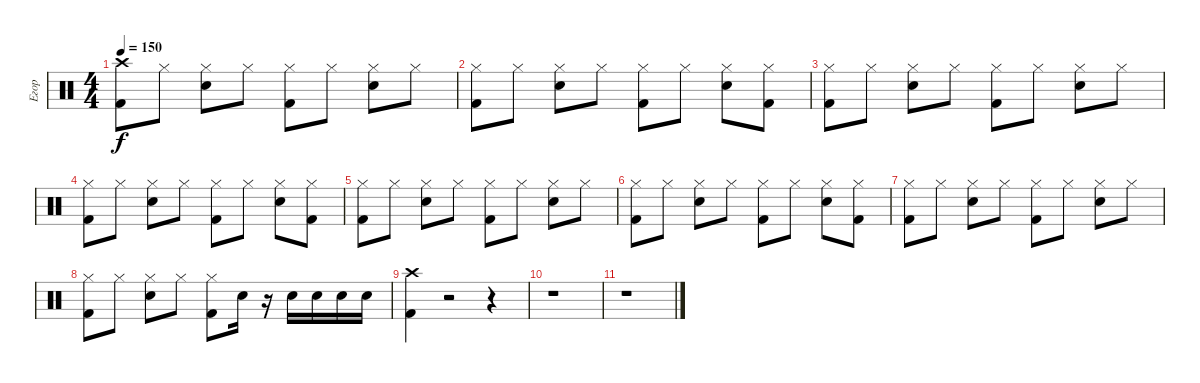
\track ("Егор" "Егор") {instrument percussion}
\staff {score}
\articulation defaults
\ts (4 4)
\tempo 150
\clef neutral
\ks c
("Crash high (hit)" "Kick (hit) 2").8{dy f} "Hi-Hat (closed)".8 ("Hi-Hat (closed)" "Snare (hit) 2").8 "Hi-Hat (closed)".8 ("Hi-Hat (closed)" "Kick (hit) 2").8 "Hi-Hat (closed)".8 ("Hi-Hat (closed)" "Snare (hit) 2").8 "Hi-Hat (closed)".8 |
("Hi-Hat (closed)" "Kick (hit) 2").8 "Hi-Hat (closed)".8 ("Hi-Hat (closed)" "Snare (hit) 2").8 "Hi-Hat (closed)".8 ("Hi-Hat (closed)" "Kick (hit) 2").8 "Hi-Hat (closed)".8 ("Hi-Hat (closed)" "Snare (hit) 2").8 ("Hi-Hat (closed)" "Kick (hit) 2").8 |
("Hi-Hat (closed)" "Kick (hit) 2").8 "Hi-Hat (closed)".8 ("Hi-Hat (closed)" "Snare (hit) 2").8 "Hi-Hat (closed)".8 ("Hi-Hat (closed)" "Kick (hit) 2").8 "Hi-Hat (closed)".8 ("Hi-Hat (closed)" "Snare (hit) 2").8 "Hi-Hat (closed)".8 |
("Hi-Hat (closed)" "Kick (hit) 2").8 "Hi-Hat (closed)".8 ("Hi-Hat (closed)" "Snare (hit) 2").8 "Hi-Hat (closed)".8 ("Hi-Hat (closed)" "Kick (hit) 2").8 "Hi-Hat (closed)".8 ("Hi-Hat (closed)" "Snare (hit) 2").8 ("Hi-Hat (closed)" "Kick (hit) 2").8 |
("Hi-Hat (closed)" "Kick (hit) 2").8 "Hi-Hat (closed)".8 ("Hi-Hat (closed)" "Snare (hit) 2").8 "Hi-Hat (closed)".8 ("Hi-Hat (closed)" "Kick (hit) 2").8 "Hi-Hat (closed)".8 ("Hi-Hat (closed)" "Snare (hit) 2").8 "Hi-Hat (closed)".8 |
("Hi-Hat (closed)" "Kick (hit) 2").8 "Hi-Hat (closed)".8 ("Hi-Hat (closed)" "Snare (hit) 2").8 "Hi-Hat (closed)".8 ("Hi-Hat (closed)" "Kick (hit) 2").8 "Hi-Hat (closed)".8 ("Hi-Hat (closed)" "Snare (hit) 2").8 ("Hi-Hat (closed)" "Kick (hit) 2").8 |
("Hi-Hat (closed)" "Kick (hit) 2").8 "Hi-Hat (closed)".8 ("Hi-Hat (closed)" "Snare (hit) 2").8 "Hi-Hat (closed)".8 ("Hi-Hat (closed)" "Kick (hit) 2").8 "Hi-Hat (closed)".8 ("Hi-Hat (closed)" "Snare (hit) 2").8 "Hi-Hat (closed)".8 |
("Hi-Hat (closed)" "Kick (hit) 2").8 "Hi-Hat (closed)".8 ("Hi-Hat (closed)" "Snare (hit) 2").8 "Hi-Hat (closed)".8 ("Hi-Hat (closed)" "Kick (hit) 2").8 "Snare (hit) 2".16 r.16 "Snare (hit) 2".16 "Snare (hit) 2".16 "Snare (hit) 2".16 "Snare (hit) 2".16 |
("Crash high (hit)" "Kick (hit) 2").4 r.2 r.4 |
r.1 |
r.1
